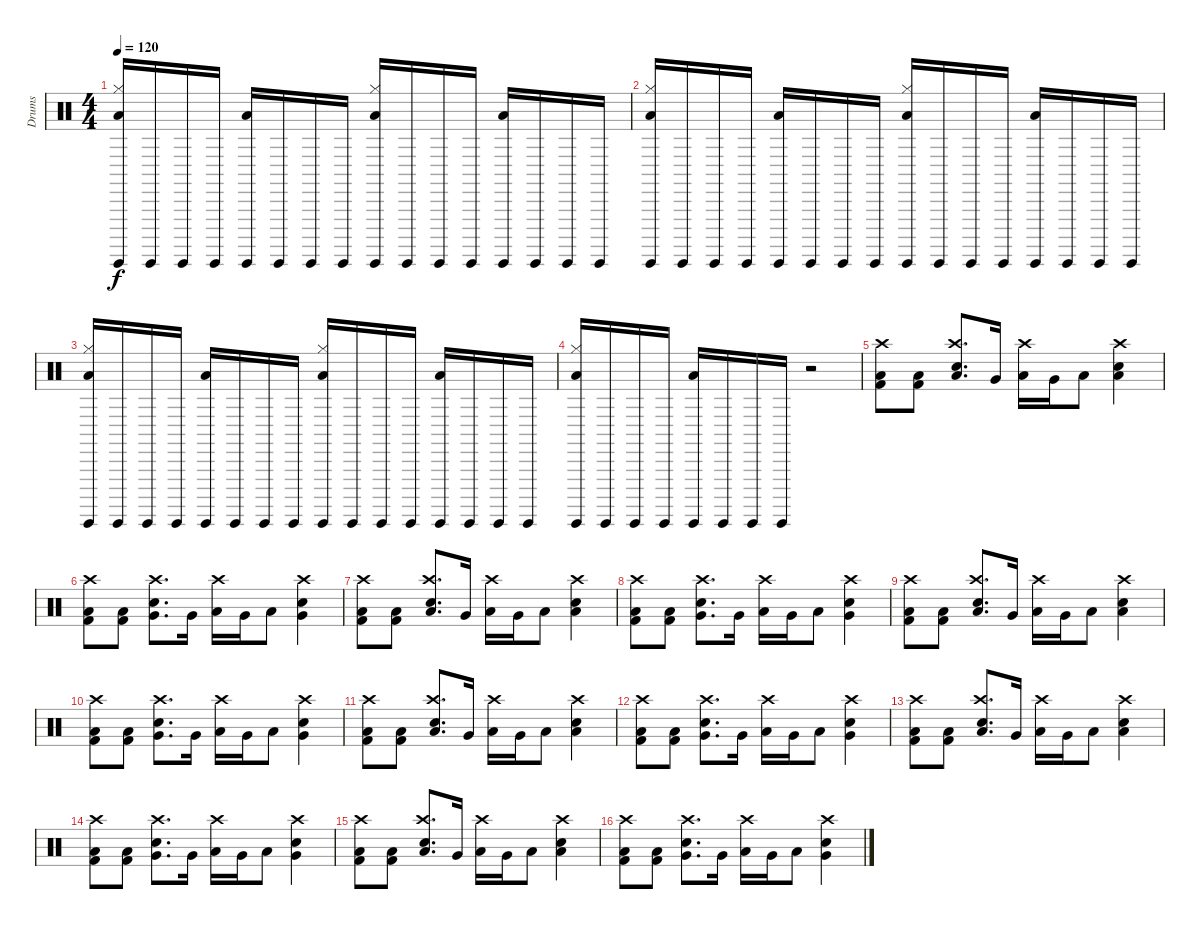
\track ("Drums" "Drums") {instrument percussion}
\staff {score}
\articulation defaults
\ts (4 4)
\tempo 120
\clef neutral
\ks c
("Guiro (hit)" "Low Tom (hit)" "Hi-Hat (closed)").16{dy f} "Guiro (hit)".16 "Guiro (hit)".16 "Guiro (hit)".16 ("Guiro (hit)" "Low Tom (hit)").16 "Guiro (hit)".16 "Guiro (hit)".16 "Guiro (hit)".16 ("Guiro (hit)" "Low Tom (hit)" "Hi-Hat (closed)").16 "Guiro (hit)".16 "Guiro (hit)".16 "Guiro (hit)".16 ("Guiro (hit)" "Low Tom (hit)").16 "Guiro (hit)".16 "Guiro (hit)".16 "Guiro (hit)".16 |
("Guiro (hit)" "Low Tom (hit)" "Hi-Hat (closed)").16 "Guiro (hit)".16 "Guiro (hit)".16 "Guiro (hit)".16 ("Guiro (hit)" "Low Tom (hit)").16 "Guiro (hit)".16 "Guiro (hit)".16 "Guiro (hit)".16 ("Guiro (hit)" "Low Tom (hit)" "Hi-Hat (closed)").16 "Guiro (hit)".16 "Guiro (hit)".16 "Guiro (hit)".16 ("Guiro (hit)" "Low Tom (hit)").16 "Guiro (hit)".16 "Guiro (hit)".16 "Guiro (hit)".16 |
("Guiro (hit)" "Low Tom (hit)" "Hi-Hat (closed)").16 "Guiro (hit)".16 "Guiro (hit)".16 "Guiro (hit)".16 ("Guiro (hit)" "Low Tom (hit)").16 "Guiro (hit)".16 "Guiro (hit)".16 "Guiro (hit)".16 ("Guiro (hit)" "Low Tom (hit)" "Hi-Hat (closed)").16 "Guiro (hit)".16 "Guiro (hit)".16 "Guiro (hit)".16 ("Guiro (hit)" "Low Tom (hit)").16 "Guiro (hit)".16 "Guiro (hit)".16 "Guiro (hit)".16 |
("Guiro (hit)" "Low Tom (hit)" "Hi-Hat (closed)").16 "Guiro (hit)".16 "Guiro (hit)".16 "Guiro (hit)".16 ("Guiro (hit)" "Low Tom (hit)").16 "Guiro (hit)".16 "Guiro (hit)".16 "Guiro (hit)".16 r.2 |
("Low Floor Tom (hit)" "Kick (hit) 2" "Crash high (hit)").8 ("Low Floor Tom (hit)" "Kick (hit) 2").8 ("Low Tom (hit)" "Electric Snare (hit)" "Crash high (hit)").8{d} "Very Low Tom (hit)".16 ("Low Tom (hit)" "Crash high (hit)").16 "Very Low Tom (hit)".16 "Low Tom (hit)".8 ("Electric Snare (hit)" "Low Tom (hit)" "Crash high (hit)").4 |
("Low Floor Tom (hit)" "Kick (hit) 2" "Crash high (hit)").8 ("Low Floor Tom (hit)" "Kick (hit) 2").8 ("Very Low Tom (hit)" "Electric Snare (hit)" "Crash high (hit)").8{d} "Very Low Tom (hit)".16 ("Low Tom (hit)" "Crash high (hit)").16 "Very Low Tom (hit)".16 "Low Tom (hit)".8 ("Electric Snare (hit)" "Very Low Tom (hit)" "Crash high (hit)").4 |
("Low Floor Tom (hit)" "Kick (hit) 2" "Crash high (hit)").8 ("Low Floor Tom (hit)" "Kick (hit) 2").8 ("Low Tom (hit)" "Electric Snare (hit)" "Crash high (hit)").8{d} "Very Low Tom (hit)".16 ("Low Tom (hit)" "Crash high (hit)").16 "Very Low Tom (hit)".16 "Low Tom (hit)".8 ("Electric Snare (hit)" "Low Tom (hit)" "Crash high (hit)").4 |
("Low Floor Tom (hit)" "Kick (hit) 2" "Crash high (hit)").8 ("Low Floor Tom (hit)" "Kick (hit) 2").8 ("Very Low Tom (hit)" "Electric Snare (hit)" "Crash high (hit)").8{d} "Very Low Tom (hit)".16 ("Low Tom (hit)" "Crash high (hit)").16 "Very Low Tom (hit)".16 "Low Tom (hit)".8 ("Electric Snare (hit)" "Very Low Tom (hit)" "Crash high (hit)").4 |
("Low Floor Tom (hit)" "Kick (hit) 2" "Crash high (hit)").8 ("Low Floor Tom (hit)" "Kick (hit) 2").8 ("Low Tom (hit)" "Electric Snare (hit)" "Crash high (hit)").8{d} "Very Low Tom (hit)".16 ("Low Tom (hit)" "Crash high (hit)").16 "Very Low Tom (hit)".16 "Low Tom (hit)".8 ("Electric Snare (hit)" "Low Tom (hit)" "Crash high (hit)").4 |
("Low Floor Tom (hit)" "Kick (hit) 2" "Crash high (hit)").8 ("Low Floor Tom (hit)" "Kick (hit) 2").8 ("Very Low Tom (hit)" "Electric Snare (hit)" "Crash high (hit)").8{d} "Very Low Tom (hit)".16 ("Low Tom (hit)" "Crash high (hit)").16 "Very Low Tom (hit)".16 "Low Tom (hit)".8 ("Electric Snare (hit)" "Very Low Tom (hit)" "Crash high (hit)").4 |
("Low Floor Tom (hit)" "Kick (hit) 2" "Crash high (hit)").8 ("Low Floor Tom (hit)" "Kick (hit) 2").8 ("Low Tom (hit)" "Electric Snare (hit)" "Crash high (hit)").8{d} "Very Low Tom (hit)".16 ("Low Tom (hit)" "Crash high (hit)").16 "Very Low Tom (hit)".16 "Low Tom (hit)".8 ("Electric Snare (hit)" "Low Tom (hit)" "Crash high (hit)").4 |
("Low Floor Tom (hit)" "Kick (hit) 2" "Crash high (hit)").8 ("Low Floor Tom (hit)" "Kick (hit) 2").8 ("Very Low Tom (hit)" "Electric Snare (hit)" "Crash high (hit)").8{d} "Very Low Tom (hit)".16 ("Low Tom (hit)" "Crash high (hit)").16 "Very Low Tom (hit)".16 "Low Tom (hit)".8 ("Electric Snare (hit)" "Very Low Tom (hit)" "Crash high (hit)").4 |
("Low Floor Tom (hit)" "Kick (hit) 2" "Crash high (hit)").8 ("Low Floor Tom (hit)" "Kick (hit) 2").8 ("Low Tom (hit)" "Electric Snare (hit)" "Crash high (hit)").8{d} "Very Low Tom (hit)".16 ("Low Tom (hit)" "Crash high (hit)").16 "Very Low Tom (hit)".16 "Low Tom (hit)".8 ("Electric Snare (hit)" "Low Tom (hit)" "Crash high (hit)").4 |
("Low Floor Tom (hit)" "Kick (hit) 2" "Crash high (hit)").8 ("Low Floor Tom (hit)" "Kick (hit) 2").8 ("Very Low Tom (hit)" "Electric Snare (hit)" "Crash high (hit)").8{d} "Very Low Tom (hit)".16 ("Low Tom (hit)" "Crash high (hit)").16 "Very Low Tom (hit)".16 "Low Tom (hit)".8 ("Electric Snare (hit)" "Very Low Tom (hit)" "Crash high (hit)").4 |
("Low Floor Tom (hit)" "Kick (hit) 2" "Crash high (hit)").8 ("Low Floor Tom (hit)" "Kick (hit) 2").8 ("Low Tom (hit)" "Electric Snare (hit)" "Crash high (hit)").8{d} "Very Low Tom (hit)".16 ("Low Tom (hit)" "Crash high (hit)").16 "Very Low Tom (hit)".16 "Low Tom (hit)".8 ("Electric Snare (hit)" "Low Tom (hit)" "Crash high (hit)").4 |
("Low Floor Tom (hit)" "Kick (hit) 2" "Crash high (hit)").8 ("Low Floor Tom (hit)" "Kick (hit) 2").8 ("Very Low Tom (hit)" "Electric Snare (hit)" "Crash high (hit)").8{d} "Very Low Tom (hit)".16 ("Low Tom (hit)" "Crash high (hit)").16 "Very Low Tom (hit)".16 "Low Tom (hit)".8 ("Electric Snare (hit)" "Very Low Tom (hit)" "Crash high (hit)").4
